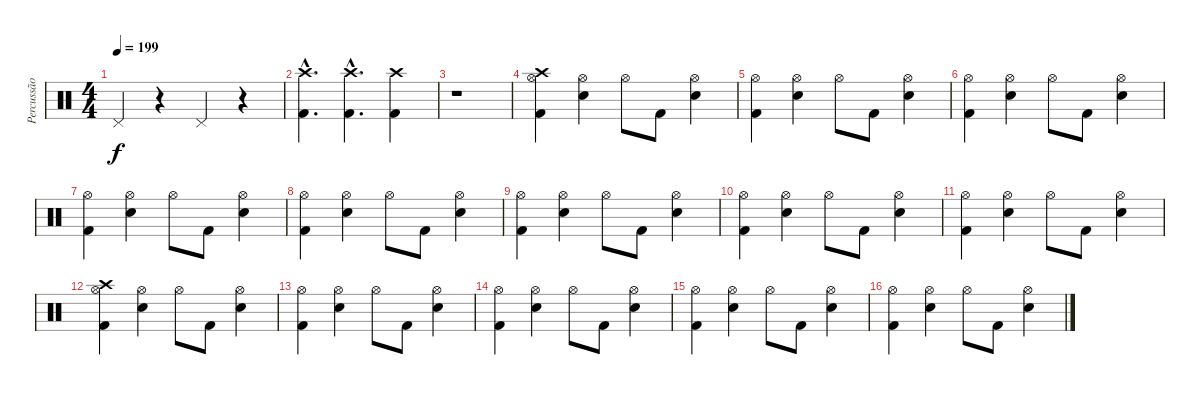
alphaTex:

\track ("Percussão" "Percussão") {instrument percussion}
\staff {score}
\articulation defaults
\ts (4 4)
\tempo 199
\clef neutral
\ks c "Pedal Hi-Hat (hit)".4{dy f}
r.4 "Pedal Hi-Hat (hit)".4 r.4 |
("Crash high (hit)"{hac} "Kick (hit) 2"{hac}).4{d} ("Crash high (hit)"{hac} "Kick (hit) 2"{hac}).4{d} ("Crash high (hit)" "Kick (hit) 2").4 |
r.1 |
("Hi-Hat (open)" "Crash high (hit)" "Kick (hit) 2").4 ("Hi-Hat (open)" "Electric Snare (hit)").4 "Hi-Hat (open)".8 "Kick (hit) 2".8 ("Hi-Hat (open)" "Electric Snare (hit)").4 |
("Hi-Hat (open)" "Kick (hit) 2").4 ("Hi-Hat (open)" "Electric Snare (hit)").4 "Hi-Hat (open)".8 "Kick (hit) 2".8 ("Hi-Hat (open)" "Electric Snare (hit)").4 |
("Hi-Hat (open)" "Kick (hit) 2").4 ("Hi-Hat (open)" "Electric Snare (hit)").4 "Hi-Hat (open)".8 "Kick (hit) 2".8 ("Hi-Hat (open)" "Electric Snare (hit)").4 |
("Hi-Hat (open)" "Kick (hit) 2").4 ("Hi-Hat (open)" "Electric Snare (hit)").4 "Hi-Hat (open)".8 "Kick (hit) 2".8 ("Hi-Hat (open)" "Electric Snare (hit)").4 |
("Hi-Hat (open)" "Kick (hit) 2").4 ("Hi-Hat (open)" "Electric Snare (hit)").4 "Hi-Hat (open)".8 "Kick (hit) 2".8 ("Hi-Hat (open)" "Electric Snare (hit)").4 |
("Hi-Hat (open)" "Kick (hit) 2").4 ("Hi-Hat (open)" "Electric Snare (hit)").4 "Hi-Hat (open)".8 "Kick (hit) 2".8 ("Hi-Hat (open)" "Electric Snare (hit)").4 |
("Hi-Hat (open)" "Kick (hit) 2").4 ("Hi-Hat (open)" "Electric Snare (hit)").4 "Hi-Hat (open)".8 "Kick (hit) 2".8 ("Hi-Hat (open)" "Electric Snare (hit)").4 |
("Hi-Hat (open)" "Kick (hit) 2").4 ("Hi-Hat (open)" "Electric Snare (hit)").4 "Hi-Hat (open)".8 "Kick (hit) 2".8 ("Hi-Hat (open)" "Electric Snare (hit)").4 |
("Hi-Hat (open)" "Crash high (hit)" "Kick (hit) 2").4 ("Hi-Hat (open)" "Electric Snare (hit)").4 "Hi-Hat (open)".8 "Kick (hit) 2".8 ("Hi-Hat (open)" "Electric Snare (hit)").4 |
("Hi-Hat (open)" "Kick (hit) 2").4 ("Hi-Hat (open)" "Electric Snare (hit)").4 "Hi-Hat (open)".8 "Kick (hit) 2".8 ("Hi-Hat (open)" "Electric Snare (hit)").4 |
("Hi-Hat (open)" "Kick (hit) 2").4 ("Hi-Hat (open)" "Electric Snare (hit)").4 "Hi-Hat (open)".8 "Kick (hit) 2".8 ("Hi-Hat (open)" "Electric Snare (hit)").4 |
("Hi-Hat (open)" "Kick (hit) 2").4 ("Hi-Hat (open)" "Electric Snare (hit)").4 "Hi-Hat (open)".8 "Kick (hit) 2".8 ("Hi-Hat (open)" "Electric Snare (hit)").4 |
("Hi-Hat (open)" "Kick (hit) 2").4 ("Hi-Hat (open)" "Electric Snare (hit)").4 "Hi-Hat (open)".8 "Kick (hit) 2".8 ("Hi-Hat (open)" "Electric Snare (hit)").4
